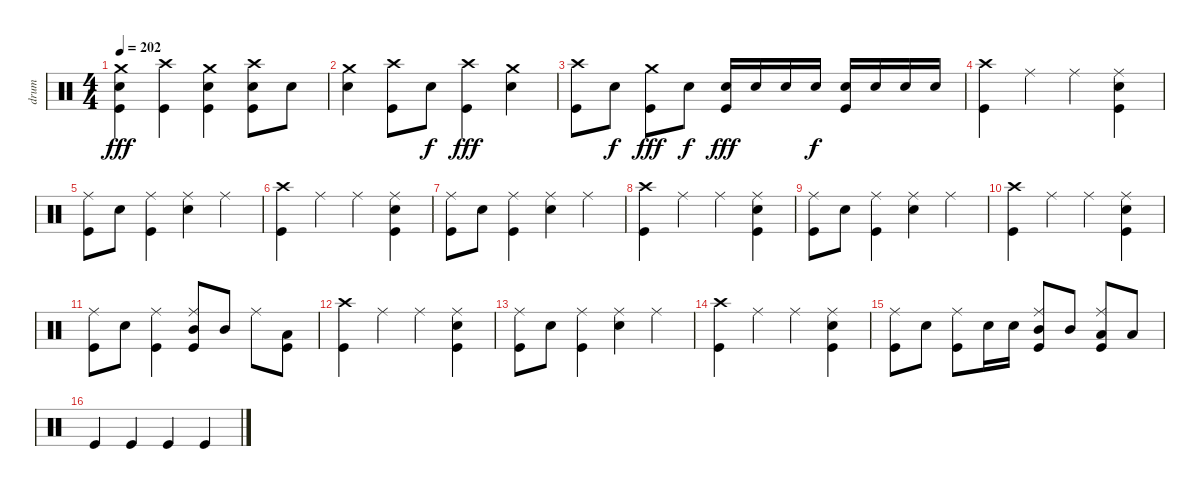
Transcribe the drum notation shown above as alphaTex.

\track ("drum" "drum") {instrument percussion}
\staff {score}
\articulation defaults
\ts (4 4)
\tempo 202
\clef neutral
\ks c
("Crash medium (hit)" "Electric Snare (hit)" "Kick (hit)").4{dy fff} ("Crash high (hit)" "Kick (hit)").4 ("Crash medium (hit)" "Electric Snare (hit)" "Kick (hit)").4 ("Crash high (hit)" "Electric Snare (hit)" "Kick (hit)").8 "Electric Snare (hit)".8 |
("Crash medium (hit)" "Electric Snare (hit)").4 ("Crash high (hit)" "Kick (hit)").8 "Electric Snare (hit)".8{dy f} ("Crash high (hit)" "Kick (hit)").4{dy fff} ("Crash medium (hit)" "Electric Snare (hit)").4 |
("Crash high (hit)" "Kick (hit)").8 "Electric Snare (hit)".8{dy f} ("Crash medium (hit)" "Kick (hit)").8{dy fff} "Electric Snare (hit)".8{dy f} ("Electric Snare (hit)" "Kick (hit)").16{dy fff} "Electric Snare (hit)".16 "Electric Snare (hit)".16 "Electric Snare (hit)".16{dy f} ("Electric Snare (hit)" "Kick (hit)").16 "Electric Snare (hit)".16 "Electric Snare (hit)".16 "Electric Snare (hit)".16 |
("Crash high (hit)" "Kick (hit)").4 "Ride (middle)".4 "Ride (middle)".4 ("Ride (middle)" "Electric Snare (hit)" "Kick (hit)").4 |
("Ride (middle)" "Kick (hit)").8 "Electric Snare (hit)".8 ("Ride (middle)" "Kick (hit)").4 ("Ride (middle)" "Electric Snare (hit)").4 "Ride (middle)".4 |
("Crash high (hit)" "Kick (hit)").4 "Ride (middle)".4 "Ride (middle)".4 ("Ride (middle)" "Electric Snare (hit)" "Kick (hit)").4 |
("Ride (middle)" "Kick (hit)").8 "Electric Snare (hit)".8 ("Ride (middle)" "Kick (hit)").4 ("Ride (middle)" "Electric Snare (hit)").4 "Ride (middle)".4 |
("Crash high (hit)" "Kick (hit)").4 "Ride (middle)".4 "Ride (middle)".4 ("Ride (middle)" "Electric Snare (hit)" "Kick (hit)").4 |
("Ride (middle)" "Kick (hit)").8 "Electric Snare (hit)".8 ("Ride (middle)" "Kick (hit)").4 ("Ride (middle)" "Electric Snare (hit)").4 "Ride (middle)".4 |
("Crash high (hit)" "Kick (hit)").4 "Ride (middle)".4 "Ride (middle)".4 ("Ride (middle)" "Electric Snare (hit)" "Kick (hit)").4 |
("Ride (middle)" "Kick (hit)").8 "Electric Snare (hit)".8 ("Ride (middle)" "Kick (hit)").4 ("Ride (middle)" "Mid Tom (hit)" "Kick (hit)").8 "Mid Tom (hit)".8 "Ride (middle)".8 ("Low Tom (hit)" "Kick (hit)").8 |
("Crash high (hit)" "Kick (hit)").4 "Ride (middle)".4 "Ride (middle)".4 ("Ride (middle)" "Electric Snare (hit)" "Kick (hit)").4 |
("Ride (middle)" "Kick (hit)").8 "Electric Snare (hit)".8 ("Ride (middle)" "Kick (hit)").4 ("Ride (middle)" "Electric Snare (hit)").4 "Ride (middle)".4 |
("Crash high (hit)" "Kick (hit)").4 "Ride (middle)".4 "Ride (middle)".4 ("Ride (middle)" "Electric Snare (hit)" "Kick (hit)").4 |
("Ride (middle)" "Kick (hit)").8 "Electric Snare (hit)".8 ("Ride (middle)" "Kick (hit)").8 "Electric Snare (hit)".16 "Electric Snare (hit)".16 ("Ride (middle)" "Mid Tom (hit)" "Kick (hit)").8 "Mid Tom (hit)".8 ("Ride (middle)" "Low Tom (hit)" "Kick (hit)").8 "Low Tom (hit)".8 |
"Kick (hit)".4 "Kick (hit)".4 "Kick (hit)".4 "Kick (hit)".4
